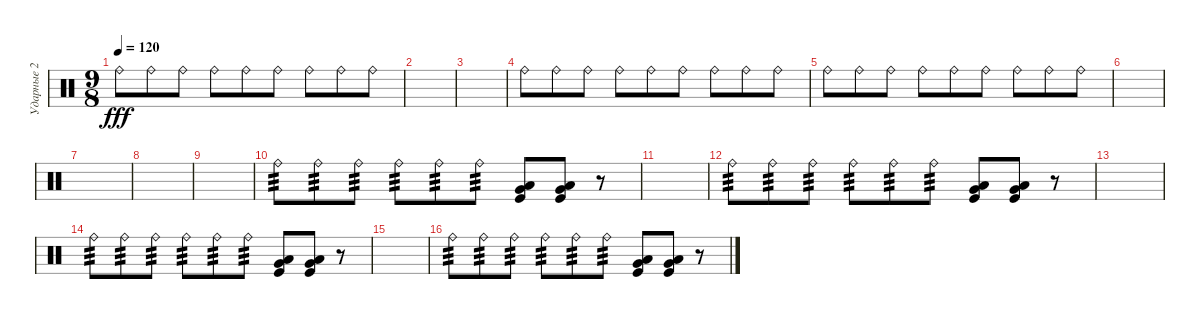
\track ("Ударные 2" "Ударные 2") {instrument percussion}
\staff {score}
\articulation defaults
\ts (9 8)
\tempo 120
\clef neutral
\ks c "Ride (bell)".8{dy fff} "Ride (bell)".8 "Ride (bell)".8 "Ride (bell)".8 "Ride (bell)".8 "Ride (bell)".8 "Ride (bell)".8 "Ride (bell)".8 "Ride (bell)".8
|
|
|
"Ride (bell)".8 "Ride (bell)".8 "Ride (bell)".8 "Ride (bell)".8 "Ride (bell)".8 "Ride (bell)".8 "Ride (bell)".8 "Ride (bell)".8 "Ride (bell)".8 |
"Ride (bell)".8 "Ride (bell)".8 "Ride (bell)".8 "Ride (bell)".8 "Ride (bell)".8 "Ride (bell)".8 "Ride (bell)".8 "Ride (bell)".8 "Ride (bell)".8 |
|
|
|
|
"Ride (bell)".8{tp 3} "Ride (bell)".8{tp 3} "Ride (bell)".8{tp 3} "Ride (bell)".8{tp 3} "Ride (bell)".8{tp 3} "Ride (bell)".8{tp 3} ("Very Low Tom (hit)" "Low Floor Tom (hit)" "Kick (hit)").8 ("Very Low Tom (hit)" "Low Floor Tom (hit)" "Kick (hit)").8 r.8 |
|
"Ride (bell)".8{tp 3} "Ride (bell)".8{tp 3} "Ride (bell)".8{tp 3} "Ride (bell)".8{tp 3} "Ride (bell)".8{tp 3} "Ride (bell)".8{tp 3} ("Very Low Tom (hit)" "Low Floor Tom (hit)" "Kick (hit)").8 ("Very Low Tom (hit)" "Low Floor Tom (hit)" "Kick (hit)").8 r.8 |
|
"Ride (bell)".8{tp 3} "Ride (bell)".8{tp 3} "Ride (bell)".8{tp 3} "Ride (bell)".8{tp 3} "Ride (bell)".8{tp 3} "Ride (bell)".8{tp 3} ("Very Low Tom (hit)" "Low Floor Tom (hit)" "Kick (hit)").8 ("Very Low Tom (hit)" "Low Floor Tom (hit)" "Kick (hit)").8 r.8 |
|
"Ride (bell)".8{tp 3} "Ride (bell)".8{tp 3} "Ride (bell)".8{tp 3} "Ride (bell)".8{tp 3} "Ride (bell)".8{tp 3} "Ride (bell)".8{tp 3} ("Very Low Tom (hit)" "Low Floor Tom (hit)" "Kick (hit)").8 ("Very Low Tom (hit)" "Low Floor Tom (hit)" "Kick (hit)").8 r.8
